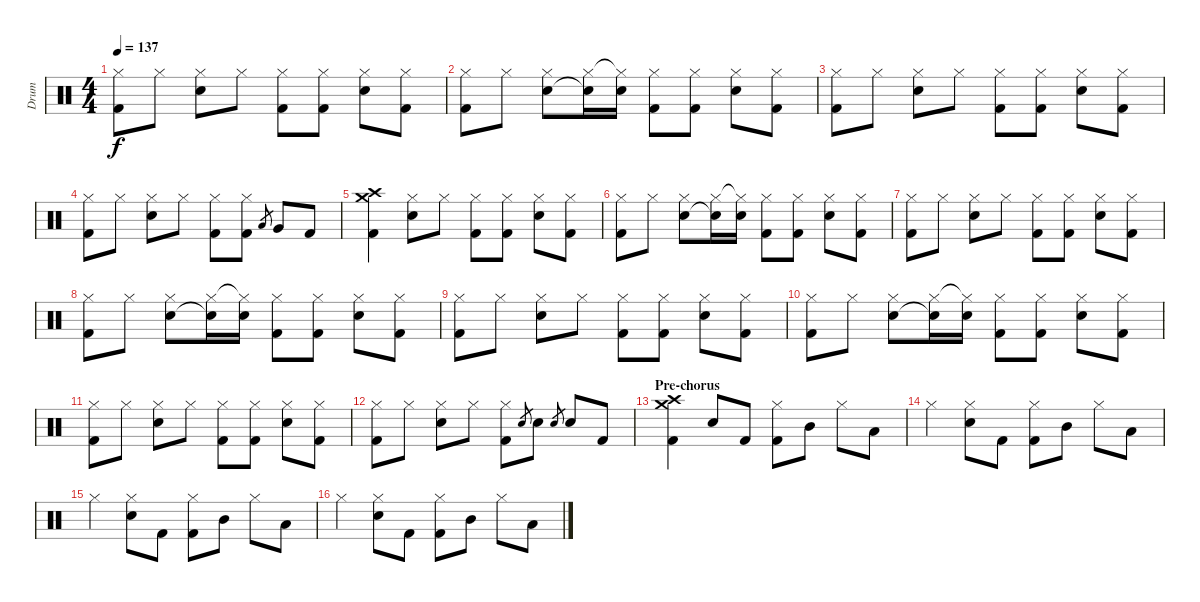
\track ("Drum" "Drum") {instrument percussion}
\staff {score}
\articulation defaults
\ts (4 4)
\tempo 137
\clef neutral
\ks c
("Hi-Hat (closed)" "Kick (hit) 2").8{dy f} "Hi-Hat (closed)".8 ("Hi-Hat (closed)" "Electric Snare (hit)").8 "Hi-Hat (closed)".8 ("Hi-Hat (closed)" "Kick (hit) 2").8 ("Hi-Hat (closed)" "Kick (hit) 2").8 ("Hi-Hat (closed)" "Electric Snare (hit)").8 ("Hi-Hat (closed)" "Kick (hit) 2").8 |
("Hi-Hat (closed)" "Kick (hit) 2").8 "Hi-Hat (closed)".8 ("Hi-Hat (closed)" "Electric Snare (hit)").8 ("Hi-Hat (closed)" "Electric Snare (hit)"{t}).16 ("Hi-Hat (closed)"{t} "Electric Snare (hit)").16 ("Hi-Hat (closed)" "Kick (hit) 2").8 ("Hi-Hat (closed)" "Kick (hit) 2").8 ("Hi-Hat (closed)" "Electric Snare (hit)").8 ("Hi-Hat (closed)" "Kick (hit) 2").8 |
("Hi-Hat (closed)" "Kick (hit) 2").8 "Hi-Hat (closed)".8 ("Hi-Hat (closed)" "Electric Snare (hit)").8 "Hi-Hat (closed)".8 ("Hi-Hat (closed)" "Kick (hit) 2").8 ("Hi-Hat (closed)" "Kick (hit) 2").8 ("Hi-Hat (closed)" "Electric Snare (hit)").8 ("Hi-Hat (closed)" "Kick (hit) 2").8 |
("Hi-Hat (closed)" "Kick (hit) 2").8 "Hi-Hat (closed)".8 ("Hi-Hat (closed)" "Electric Snare (hit)").8 "Hi-Hat (closed)".8 ("Hi-Hat (closed)" "Kick (hit) 2").8 ("Hi-Hat (closed)" "Kick (hit) 2").8 "Low Floor Tom (hit)".8{gr} "Very Low Tom (hit)".8 "Kick (hit) 2".8 |
\section ("" "")
("Kick (hit) 2" "Crash high (hit)" "Crash medium (hit)").4 ("Hi-Hat (closed)" "Electric Snare (hit)").8 "Hi-Hat (closed)".8 ("Hi-Hat (closed)" "Kick (hit) 2").8 ("Hi-Hat (closed)" "Kick (hit) 2").8 ("Hi-Hat (closed)" "Electric Snare (hit)").8 ("Hi-Hat (closed)" "Kick (hit) 2").8 |
("Hi-Hat (closed)" "Kick (hit) 2").8 "Hi-Hat (closed)".8 ("Hi-Hat (closed)" "Electric Snare (hit)").8 ("Hi-Hat (closed)" "Electric Snare (hit)"{t}).16 ("Hi-Hat (closed)"{t} "Electric Snare (hit)").16 ("Hi-Hat (closed)" "Kick (hit) 2").8 ("Hi-Hat (closed)" "Kick (hit) 2").8 ("Hi-Hat (closed)" "Electric Snare (hit)").8 ("Hi-Hat (closed)" "Kick (hit) 2").8 |
("Hi-Hat (closed)" "Kick (hit) 2").8 "Hi-Hat (closed)".8 ("Hi-Hat (closed)" "Electric Snare (hit)").8 "Hi-Hat (closed)".8 ("Hi-Hat (closed)" "Kick (hit) 2").8 ("Hi-Hat (closed)" "Kick (hit) 2").8 ("Hi-Hat (closed)" "Electric Snare (hit)").8 ("Hi-Hat (closed)" "Kick (hit) 2").8 |
("Hi-Hat (closed)" "Kick (hit) 2").8 "Hi-Hat (closed)".8 ("Hi-Hat (closed)" "Electric Snare (hit)").8 ("Hi-Hat (closed)" "Electric Snare (hit)"{t}).16 ("Hi-Hat (closed)"{t} "Electric Snare (hit)").16 ("Hi-Hat (closed)" "Kick (hit) 2").8 ("Hi-Hat (closed)" "Kick (hit) 2").8 ("Hi-Hat (closed)" "Electric Snare (hit)").8 ("Hi-Hat (closed)" "Kick (hit) 2").8 |
("Hi-Hat (closed)" "Kick (hit) 2").8 "Hi-Hat (closed)".8 ("Hi-Hat (closed)" "Electric Snare (hit)").8 "Hi-Hat (closed)".8 ("Hi-Hat (closed)" "Kick (hit) 2").8 ("Hi-Hat (closed)" "Kick (hit) 2").8 ("Hi-Hat (closed)" "Electric Snare (hit)").8 ("Hi-Hat (closed)" "Kick (hit) 2").8 |
("Hi-Hat (closed)" "Kick (hit) 2").8 "Hi-Hat (closed)".8 ("Hi-Hat (closed)" "Electric Snare (hit)").8 ("Hi-Hat (closed)" "Electric Snare (hit)"{t}).16 ("Hi-Hat (closed)"{t} "Electric Snare (hit)").16 ("Hi-Hat (closed)" "Kick (hit) 2").8 ("Hi-Hat (closed)" "Kick (hit) 2").8 ("Hi-Hat (closed)" "Electric Snare (hit)").8 ("Hi-Hat (closed)" "Kick (hit) 2").8 |
("Hi-Hat (closed)" "Kick (hit) 2").8 "Hi-Hat (closed)".8 ("Hi-Hat (closed)" "Electric Snare (hit)").8 "Hi-Hat (closed)".8 ("Hi-Hat (closed)" "Kick (hit) 2").8 ("Hi-Hat (closed)" "Kick (hit) 2").8 ("Hi-Hat (closed)" "Electric Snare (hit)").8 ("Hi-Hat (closed)" "Kick (hit) 2").8 |
("Hi-Hat (closed)" "Kick (hit) 2").8 "Hi-Hat (closed)".8 ("Hi-Hat (closed)" "Electric Snare (hit)").8 "Hi-Hat (closed)".8 ("Hi-Hat (closed)" "Kick (hit) 2").8 "Electric Snare (hit)".8{gr} "Electric Snare (hit)".8 "Electric Snare (hit)".8{gr} "Electric Snare (hit)".8 "Kick (hit) 2".8 |
\section ("" "Pre-chorus")
("Kick (hit) 2" "Crash high (hit)" "Crash medium (hit)").4 "Electric Snare (hit)".8 "Kick (hit) 2".8 ("Hi-Hat (closed)" "Kick (hit) 2").8 "Mid Tom (hit)".8 "Hi-Hat (closed)".8 "Low Tom (hit)".8 |
"Hi-Hat (closed)".4 ("Hi-Hat (closed)" "Electric Snare (hit)").8 "Kick (hit) 2".8 ("Hi-Hat (closed)" "Kick (hit) 2").8 "Mid Tom (hit)".8 "Hi-Hat (closed)".8 "Low Tom (hit)".8 |
"Hi-Hat (closed)".4 ("Hi-Hat (closed)" "Electric Snare (hit)").8 "Kick (hit) 2".8 ("Hi-Hat (closed)" "Kick (hit) 2").8 "Mid Tom (hit)".8 "Hi-Hat (closed)".8 "Low Tom (hit)".8 |
"Hi-Hat (closed)".4 ("Hi-Hat (closed)" "Electric Snare (hit)").8 "Kick (hit) 2".8 ("Hi-Hat (closed)" "Kick (hit) 2").8 "Mid Tom (hit)".8 "Hi-Hat (closed)".8 "Low Tom (hit)".8
